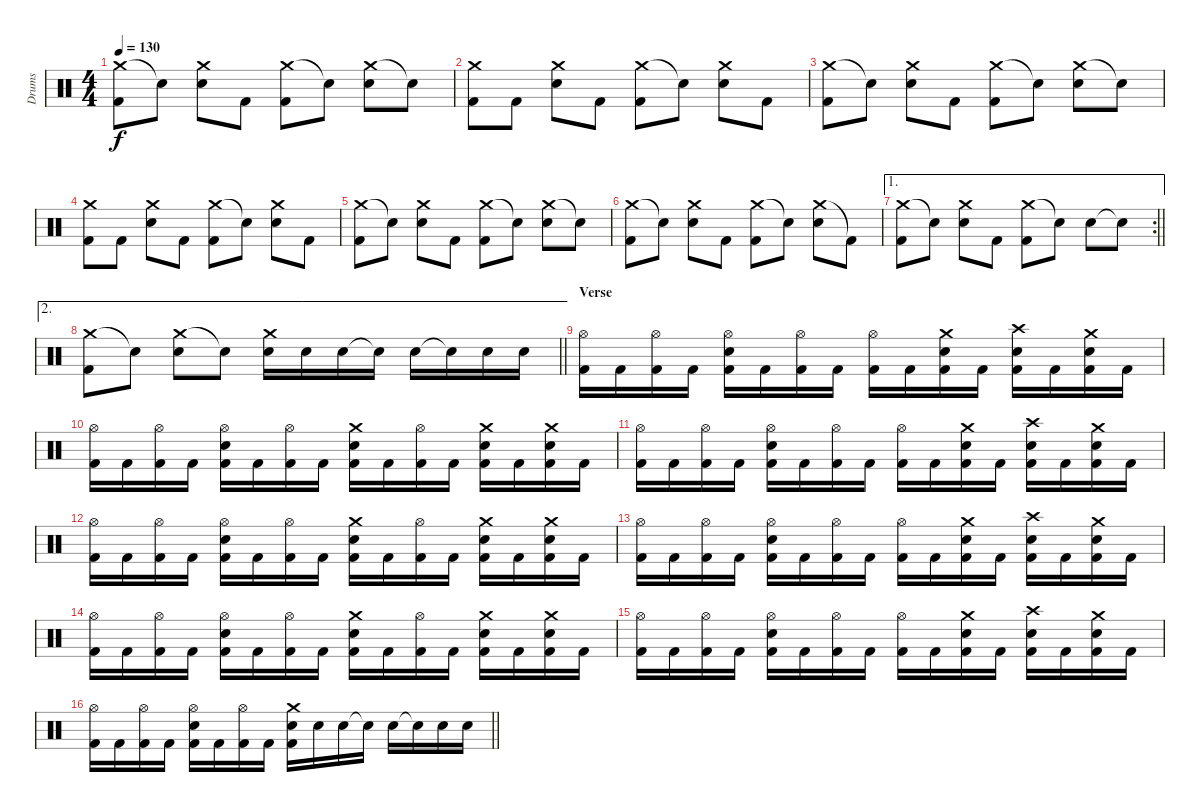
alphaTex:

\track ("Drums" "Drums") {instrument percussion}
\staff {score}
\articulation defaults
\ts (4 4)
\tempo 130
\clef neutral
\ks c
("Crash medium (hit)" "Kick (hit) 2").8{dy f} "Snare (hit)"{t}.8 ("Crash medium (hit)" "Electric Snare (hit)").8 "Kick (hit) 2".8 ("Crash medium (hit)" "Kick (hit) 2").8 "Snare (hit)"{t}.8 ("Crash medium (hit)" "Electric Snare (hit)").8 "Snare (hit)"{t}.8 |
("Crash medium (hit)" "Kick (hit) 2").8 "Kick (hit) 2".8 ("Crash medium (hit)" "Electric Snare (hit)").8 "Kick (hit) 2".8 ("Crash medium (hit)" "Kick (hit) 2").8 "Snare (hit)"{t}.8 ("Crash medium (hit)" "Electric Snare (hit)").8 "Kick (hit) 2".8 |
("Crash medium (hit)" "Kick (hit) 2").8 "Snare (hit)"{t}.8 ("Crash medium (hit)" "Electric Snare (hit)").8 "Kick (hit) 2".8 ("Crash medium (hit)" "Kick (hit) 2").8 "Snare (hit)"{t}.8 ("Crash medium (hit)" "Electric Snare (hit)").8 "Snare (hit)"{t}.8 |
("Crash medium (hit)" "Kick (hit) 2").8 "Kick (hit) 2".8 ("Crash medium (hit)" "Electric Snare (hit)").8 "Kick (hit) 2".8 ("Crash medium (hit)" "Kick (hit) 2").8 "Snare (hit)"{t}.8 ("Crash medium (hit)" "Electric Snare (hit)").8 "Kick (hit) 2".8 |
("Crash medium (hit)" "Kick (hit) 2").8 "Snare (hit)"{t}.8 ("Crash medium (hit)" "Electric Snare (hit)").8 "Kick (hit) 2".8 ("Crash medium (hit)" "Kick (hit) 2").8 "Snare (hit)"{t}.8 ("Crash medium (hit)" "Electric Snare (hit)").8 "Snare (hit)"{t}.8 |
("Crash medium (hit)" "Kick (hit) 2").8 "Snare (hit)"{t}.8 ("Crash medium (hit)" "Electric Snare (hit)").8 "Kick (hit) 2".8 ("Crash medium (hit)" "Kick (hit) 2").8 "Snare (hit)"{t}.8 ("Crash medium (hit)" "Electric Snare (hit)").8 "Kick (hit) 2"{t}.8 |
\ae 1
\rc 2
\barLineRight lightlight
("Crash medium (hit)" "Kick (hit) 2").8 "Electric Snare (hit)"{t}.8 ("Crash medium (hit)" "Electric Snare (hit)").8 "Kick (hit) 2".8 ("Crash medium (hit)" "Kick (hit) 2").8 "Electric Snare (hit)"{t}.8 "Electric Snare (hit)".8 "Snare (hit)"{t}.8 |
\ae 2
\barLineRight lightlight
("Crash medium (hit)" "Kick (hit) 2").8 "Snare (hit)"{t}.8 ("Crash medium (hit)" "Electric Snare (hit)").8 "Snare (hit)"{t}.8 ("Crash medium (hit)" "Electric Snare (hit)").16 "Electric Snare (hit)".16 "Electric Snare (hit)".16 "Electric Snare (hit)"{t}.16 "Electric Snare (hit)".16 "Electric Snare (hit)"{t}.16 "Electric Snare (hit)".16 "Electric Snare (hit)".16 |
\section ("" "Verse")
("Hi-Hat (open)" "Kick (hit) 2").16 "Kick (hit) 2".16 ("Hi-Hat (open)" "Kick (hit) 2").16 "Kick (hit) 2".16 ("Hi-Hat (open)" "Electric Snare (hit)" "Kick (hit) 2").16 "Kick (hit) 2".16 ("Hi-Hat (open)" "Kick (hit) 2").16 "Kick (hit) 2".16 ("Hi-Hat (open)" "Kick (hit) 2").16 "Kick (hit) 2".16 ("Crash medium (hit)" "Electric Snare (hit)" "Kick (hit) 2").16 "Kick (hit) 2".16 ("Crash high (hit)" "Electric Snare (hit)" "Kick (hit) 2").16 "Kick (hit) 2".16 ("Crash medium (hit)" "Electric Snare (hit)" "Kick (hit) 2").16 "Kick (hit) 2".16 |
("Hi-Hat (open)" "Kick (hit) 2").16 "Kick (hit) 2".16 ("Hi-Hat (open)" "Kick (hit) 2").16 "Kick (hit) 2".16 ("Hi-Hat (open)" "Electric Snare (hit)" "Kick (hit) 2").16 "Kick (hit) 2".16 ("Hi-Hat (open)" "Kick (hit) 2").16 "Kick (hit) 2".16 ("Crash medium (hit)" "Electric Snare (hit)" "Kick (hit) 2").16 "Kick (hit) 2".16 ("Hi-Hat (open)" "Kick (hit) 2").16 "Kick (hit) 2".16 ("Crash medium (hit)" "Electric Snare (hit)" "Kick (hit) 2").16 "Kick (hit) 2".16 ("Crash medium (hit)" "Electric Snare (hit)" "Kick (hit) 2").16 "Kick (hit) 2".16 |
("Hi-Hat (open)" "Kick (hit) 2").16 "Kick (hit) 2".16 ("Hi-Hat (open)" "Kick (hit) 2").16 "Kick (hit) 2".16 ("Hi-Hat (open)" "Electric Snare (hit)" "Kick (hit) 2").16 "Kick (hit) 2".16 ("Hi-Hat (open)" "Kick (hit) 2").16 "Kick (hit) 2".16 ("Hi-Hat (open)" "Kick (hit) 2").16 "Kick (hit) 2".16 ("Crash medium (hit)" "Electric Snare (hit)" "Kick (hit) 2").16 "Kick (hit) 2".16 ("Crash high (hit)" "Electric Snare (hit)" "Kick (hit) 2").16 "Kick (hit) 2".16 ("Crash medium (hit)" "Electric Snare (hit)" "Kick (hit) 2").16 "Kick (hit) 2".16 |
("Hi-Hat (open)" "Kick (hit) 2").16 "Kick (hit) 2".16 ("Hi-Hat (open)" "Kick (hit) 2").16 "Kick (hit) 2".16 ("Hi-Hat (open)" "Electric Snare (hit)" "Kick (hit) 2").16 "Kick (hit) 2".16 ("Hi-Hat (open)" "Kick (hit) 2").16 "Kick (hit) 2".16 ("Crash medium (hit)" "Electric Snare (hit)" "Kick (hit) 2").16 "Kick (hit) 2".16 ("Hi-Hat (open)" "Kick (hit) 2").16 "Kick (hit) 2".16 ("Crash medium (hit)" "Electric Snare (hit)" "Kick (hit) 2").16 "Kick (hit) 2".16 ("Crash medium (hit)" "Electric Snare (hit)" "Kick (hit) 2").16 "Kick (hit) 2".16 |
("Hi-Hat (open)" "Kick (hit) 2").16 "Kick (hit) 2".16 ("Hi-Hat (open)" "Kick (hit) 2").16 "Kick (hit) 2".16 ("Hi-Hat (open)" "Electric Snare (hit)" "Kick (hit) 2").16 "Kick (hit) 2".16 ("Hi-Hat (open)" "Kick (hit) 2").16 "Kick (hit) 2".16 ("Hi-Hat (open)" "Kick (hit) 2").16 "Kick (hit) 2".16 ("Crash medium (hit)" "Electric Snare (hit)" "Kick (hit) 2").16 "Kick (hit) 2".16 ("Crash high (hit)" "Electric Snare (hit)" "Kick (hit) 2").16 "Kick (hit) 2".16 ("Crash medium (hit)" "Electric Snare (hit)" "Kick (hit) 2").16 "Kick (hit) 2".16 |
("Hi-Hat (open)" "Kick (hit) 2").16 "Kick (hit) 2".16 ("Hi-Hat (open)" "Kick (hit) 2").16 "Kick (hit) 2".16 ("Hi-Hat (open)" "Electric Snare (hit)" "Kick (hit) 2").16 "Kick (hit) 2".16 ("Hi-Hat (open)" "Kick (hit) 2").16 "Kick (hit) 2".16 ("Crash medium (hit)" "Electric Snare (hit)" "Kick (hit) 2").16 "Kick (hit) 2".16 ("Hi-Hat (open)" "Kick (hit) 2").16 "Kick (hit) 2".16 ("Crash medium (hit)" "Electric Snare (hit)" "Kick (hit) 2").16 "Kick (hit) 2".16 ("Crash medium (hit)" "Electric Snare (hit)" "Kick (hit) 2").16 "Kick (hit) 2".16 |
("Hi-Hat (open)" "Kick (hit) 2").16 "Kick (hit) 2".16 ("Hi-Hat (open)" "Kick (hit) 2").16 "Kick (hit) 2".16 ("Hi-Hat (open)" "Electric Snare (hit)" "Kick (hit) 2").16 "Kick (hit) 2".16 ("Hi-Hat (open)" "Kick (hit) 2").16 "Kick (hit) 2".16 ("Hi-Hat (open)" "Kick (hit) 2").16 "Kick (hit) 2".16 ("Crash medium (hit)" "Electric Snare (hit)" "Kick (hit) 2").16 "Kick (hit) 2".16 ("Crash high (hit)" "Electric Snare (hit)" "Kick (hit) 2").16 "Kick (hit) 2".16 ("Crash medium (hit)" "Electric Snare (hit)" "Kick (hit) 2").16 "Kick (hit) 2".16 |
\barLineRight lightlight
("Hi-Hat (open)" "Kick (hit) 2").16 "Kick (hit) 2".16 ("Hi-Hat (open)" "Kick (hit) 2").16 "Kick (hit) 2".16 ("Hi-Hat (open)" "Electric Snare (hit)" "Kick (hit) 2").16 "Kick (hit) 2".16 ("Hi-Hat (open)" "Kick (hit) 2").16 "Kick (hit) 2".16 ("Crash medium (hit)" "Electric Snare (hit)" "Kick (hit) 2").16 "Electric Snare (hit)".16 "Electric Snare (hit)".16 "Electric Snare (hit)"{t}.16 "Electric Snare (hit)".16 "Electric Snare (hit)"{t}.16 "Electric Snare (hit)".16 "Electric Snare (hit)".16
